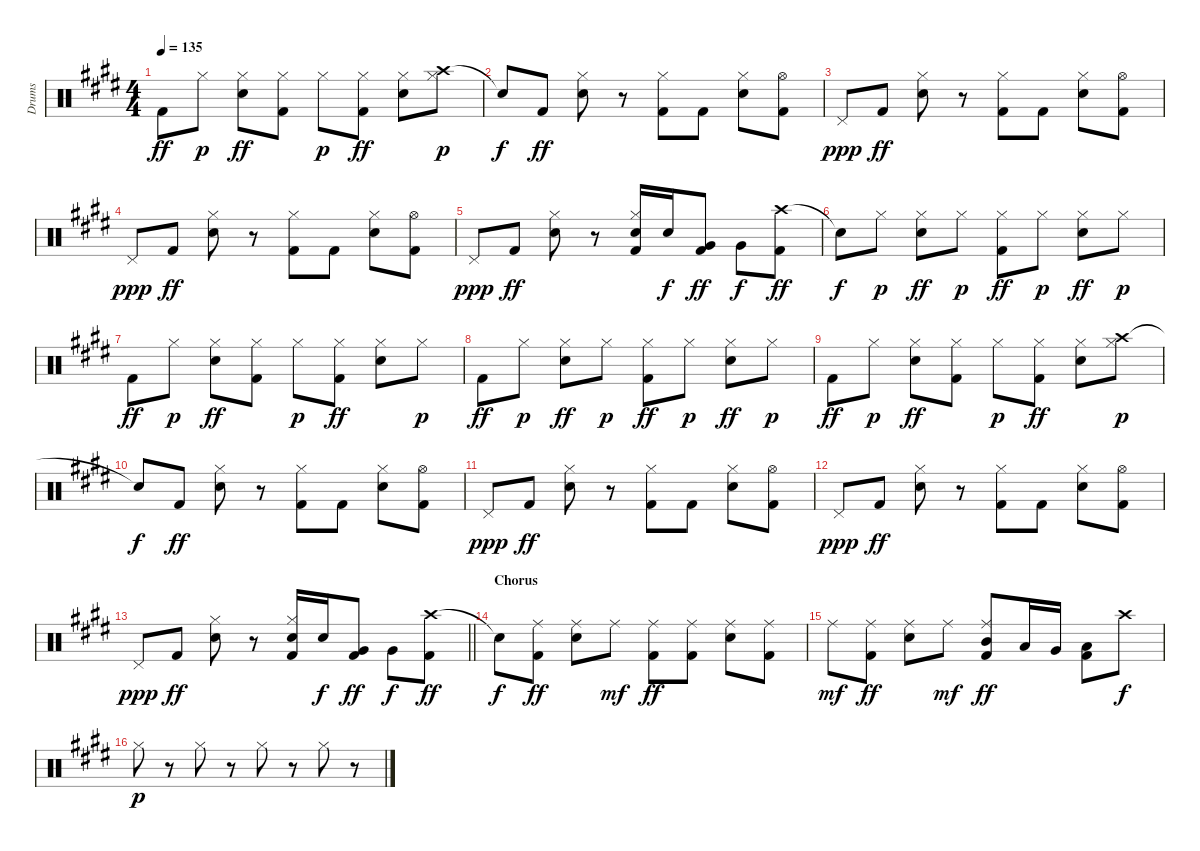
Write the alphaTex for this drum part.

\track ("Drums" "Drums") {instrument percussion}
\staff {score}
\articulation defaults
\ts (4 4)
\tempo 135
\clef neutral
\ks e "Kick (hit) 2".8{dy ff} "Hi-Hat (closed)".8{dy p}
("Hi-Hat (closed)" "Snare (hit) 2").8{dy ff} ("Hi-Hat (closed)" "Kick (hit) 2").8 "Hi-Hat (closed)".8{dy p} ("Hi-Hat (closed)" "Kick (hit) 2").8{dy ff} ("Hi-Hat (closed)" "Snare (hit) 2").8 ("Crash high (hit)" "Hi-Hat (closed)").8{dy p} |
"Snare (hit)"{t}.8{dy f} "Kick (hit) 2".8{dy ff} ("Hi-Hat (closed)" "Snare (hit) 2").8 r.8 ("Hi-Hat (closed)" "Kick (hit) 2").8 "Kick (hit) 2".8 ("Hi-Hat (closed)" "Snare (hit) 2").8 ("Hi-Hat (open)" "Kick (hit) 2").8 |
"Pedal Hi-Hat (hit)".8{dy ppp} "Kick (hit) 2".8{dy ff} ("Hi-Hat (closed)" "Snare (hit) 2").8 r.8 ("Hi-Hat (closed)" "Kick (hit) 2").8 "Kick (hit) 2".8 ("Hi-Hat (closed)" "Snare (hit) 2").8 ("Hi-Hat (open)" "Kick (hit) 2").8 |
"Pedal Hi-Hat (hit)".8{dy ppp} "Kick (hit) 2".8{dy ff} ("Hi-Hat (closed)" "Snare (hit) 2").8 r.8 ("Hi-Hat (closed)" "Kick (hit) 2").8 "Kick (hit) 2".8 ("Hi-Hat (closed)" "Snare (hit) 2").8 ("Hi-Hat (open)" "Kick (hit) 2").8 |
"Pedal Hi-Hat (hit)".8{dy ppp} "Kick (hit) 2".8{dy ff} ("Hi-Hat (closed)" "Snare (hit) 2").8 r.8 ("Hi-Hat (closed)" "Snare (hit) 2" "Kick (hit) 2").16 "Snare (hit) 2".16{dy f} ("Very Low Tom (hit)" "Kick (hit) 2").8{dy ff} "Very Low Tom (hit)".8{dy f} ("Crash high (hit)" "Kick (hit) 2").8{dy ff} |
"Snare (hit)"{t}.8{dy f} "Hi-Hat (closed)".8{dy p} ("Hi-Hat (closed)" "Snare (hit) 2").8{dy ff} "Hi-Hat (closed)".8{dy p} ("Hi-Hat (closed)" "Kick (hit) 2").8{dy ff} "Hi-Hat (closed)".8{dy p} ("Hi-Hat (closed)" "Snare (hit) 2").8{dy ff} "Hi-Hat (closed)".8{dy p} |
"Kick (hit) 2".8{dy ff} "Hi-Hat (closed)".8{dy p} ("Hi-Hat (closed)" "Snare (hit) 2").8{dy ff} ("Hi-Hat (closed)" "Kick (hit) 2").8 "Hi-Hat (closed)".8{dy p} ("Hi-Hat (closed)" "Kick (hit) 2").8{dy ff} ("Hi-Hat (closed)" "Snare (hit) 2").8 "Hi-Hat (closed)".8{dy p} |
"Kick (hit) 2".8{dy ff} "Hi-Hat (closed)".8{dy p} ("Hi-Hat (closed)" "Snare (hit) 2").8{dy ff} "Hi-Hat (closed)".8{dy p} ("Hi-Hat (closed)" "Kick (hit) 2").8{dy ff} "Hi-Hat (closed)".8{dy p} ("Hi-Hat (closed)" "Snare (hit) 2").8{dy ff} "Hi-Hat (closed)".8{dy p} |
"Kick (hit) 2".8{dy ff} "Hi-Hat (closed)".8{dy p} ("Hi-Hat (closed)" "Snare (hit) 2").8{dy ff} ("Hi-Hat (closed)" "Kick (hit) 2").8 "Hi-Hat (closed)".8{dy p} ("Hi-Hat (closed)" "Kick (hit) 2").8{dy ff} ("Hi-Hat (closed)" "Snare (hit) 2").8 ("Crash high (hit)" "Hi-Hat (closed)").8{dy p} |
"Snare (hit)"{t}.8{dy f} "Kick (hit) 2".8{dy ff} ("Hi-Hat (closed)" "Snare (hit) 2").8 r.8 ("Hi-Hat (closed)" "Kick (hit) 2").8 "Kick (hit) 2".8 ("Hi-Hat (closed)" "Snare (hit) 2").8 ("Hi-Hat (open)" "Kick (hit) 2").8 |
"Pedal Hi-Hat (hit)".8{dy ppp} "Kick (hit) 2".8{dy ff} ("Hi-Hat (closed)" "Snare (hit) 2").8 r.8 ("Hi-Hat (closed)" "Kick (hit) 2").8 "Kick (hit) 2".8 ("Hi-Hat (closed)" "Snare (hit) 2").8 ("Hi-Hat (open)" "Kick (hit) 2").8 |
"Pedal Hi-Hat (hit)".8{dy ppp} "Kick (hit) 2".8{dy ff} ("Hi-Hat (closed)" "Snare (hit) 2").8 r.8 ("Hi-Hat (closed)" "Kick (hit) 2").8 "Kick (hit) 2".8 ("Hi-Hat (closed)" "Snare (hit) 2").8 ("Hi-Hat (open)" "Kick (hit) 2").8 |
\barLineRight lightlight "Pedal Hi-Hat (hit)".8{dy ppp} "Kick (hit) 2".8{dy ff}
("Hi-Hat (closed)" "Snare (hit) 2").8 r.8 ("Hi-Hat (closed)" "Snare (hit) 2" "Kick (hit) 2").16 "Snare (hit) 2".16{dy f} ("Very Low Tom (hit)" "Kick (hit) 2").8{dy ff} "Very Low Tom (hit)".8{dy f} ("Crash high (hit)" "Kick (hit) 2").8{dy ff} |
\section ("" "Chorus")
"Snare (hit)"{t}.8{dy f} ("Ride (middle)" "Kick (hit) 2").8{dy ff} ("Ride (middle)" "Snare (hit) 2").8 "Ride (middle)".8{dy mf} ("Ride (middle)" "Kick (hit) 2").8{dy ff} ("Ride (middle)" "Kick (hit) 2").8 ("Ride (middle)" "Snare (hit) 2").8 ("Ride (middle)" "Kick (hit) 2").8 |
"Ride (middle)".8{dy mf} ("Ride (middle)" "Kick (hit) 2").8{dy ff} ("Ride (middle)" "Snare (hit) 2").8 "Ride (middle)".8{dy mf} ("Ride (middle)" "Mid Tom (hit)" "Kick (hit) 2").8{dy ff} "Low Tom (hit)".16 "Very Low Tom (hit)".16 ("Low Floor Tom (hit)" "Kick (hit) 2").8 "Crash high (hit)".8{dy f} |
"Hi-Hat (closed)".8{dy p} r.8 "Hi-Hat (closed)".8 r.8 "Hi-Hat (closed)".8 r.8 "Hi-Hat (closed)".8 r.8
